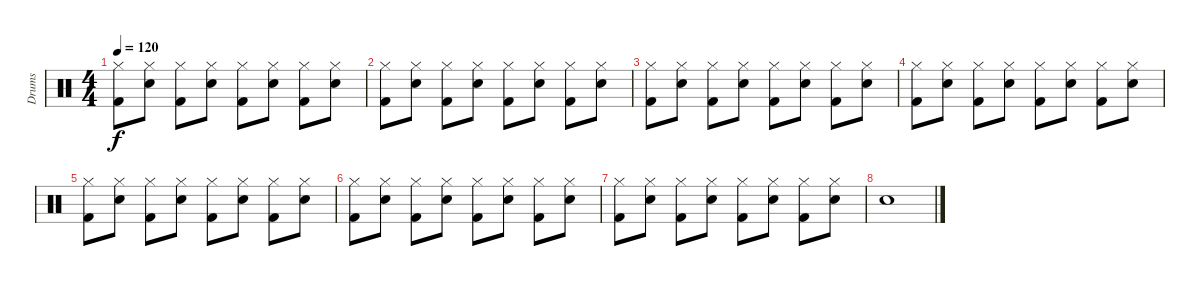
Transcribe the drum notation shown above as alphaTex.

\track ("Drums" "Drums") {instrument percussion}
\staff {score}
\articulation defaults
\ts (4 4)
\tempo 120
\clef neutral
\ks c
("Hi-Hat (closed)" "Kick (hit) 2").8{dy f} ("Hi-Hat (closed)" "Snare (hit) 2").8 ("Hi-Hat (closed)" "Kick (hit) 2").8 ("Hi-Hat (closed)" "Snare (hit) 2").8 ("Hi-Hat (closed)" "Kick (hit) 2").8 ("Hi-Hat (closed)" "Snare (hit) 2").8 ("Hi-Hat (closed)" "Kick (hit) 2").8 ("Hi-Hat (closed)" "Snare (hit) 2").8 |
("Hi-Hat (closed)" "Kick (hit) 2").8 ("Hi-Hat (closed)" "Snare (hit) 2").8 ("Hi-Hat (closed)" "Kick (hit) 2").8 ("Hi-Hat (closed)" "Snare (hit) 2").8 ("Hi-Hat (closed)" "Kick (hit) 2").8 ("Hi-Hat (closed)" "Snare (hit) 2").8 ("Hi-Hat (closed)" "Kick (hit) 2").8 ("Hi-Hat (closed)" "Snare (hit) 2").8 |
("Hi-Hat (closed)" "Kick (hit) 2").8 ("Hi-Hat (closed)" "Snare (hit) 2").8 ("Hi-Hat (closed)" "Kick (hit) 2").8 ("Hi-Hat (closed)" "Snare (hit) 2").8 ("Hi-Hat (closed)" "Kick (hit) 2").8 ("Hi-Hat (closed)" "Snare (hit) 2").8 ("Hi-Hat (closed)" "Kick (hit) 2").8 ("Hi-Hat (closed)" "Snare (hit) 2").8 |
("Hi-Hat (closed)" "Kick (hit) 2").8 ("Hi-Hat (closed)" "Snare (hit) 2").8 ("Hi-Hat (closed)" "Kick (hit) 2").8 ("Hi-Hat (closed)" "Snare (hit) 2").8 ("Hi-Hat (closed)" "Kick (hit) 2").8 ("Hi-Hat (closed)" "Snare (hit) 2").8 ("Hi-Hat (closed)" "Kick (hit) 2").8 ("Hi-Hat (closed)" "Snare (hit) 2").8 |
("Hi-Hat (closed)" "Kick (hit) 2").8 ("Hi-Hat (closed)" "Snare (hit) 2").8 ("Hi-Hat (closed)" "Kick (hit) 2").8 ("Hi-Hat (closed)" "Snare (hit) 2").8 ("Hi-Hat (closed)" "Kick (hit) 2").8 ("Hi-Hat (closed)" "Snare (hit) 2").8 ("Hi-Hat (closed)" "Kick (hit) 2").8 ("Hi-Hat (closed)" "Snare (hit) 2").8 |
("Hi-Hat (closed)" "Kick (hit) 2").8 ("Hi-Hat (closed)" "Snare (hit) 2").8 ("Hi-Hat (closed)" "Kick (hit) 2").8 ("Hi-Hat (closed)" "Snare (hit) 2").8 ("Hi-Hat (closed)" "Kick (hit) 2").8 ("Hi-Hat (closed)" "Snare (hit) 2").8 ("Hi-Hat (closed)" "Kick (hit) 2").8 ("Hi-Hat (closed)" "Snare (hit) 2").8 |
("Hi-Hat (closed)" "Kick (hit) 2").8 ("Hi-Hat (closed)" "Snare (hit) 2").8 ("Hi-Hat (closed)" "Kick (hit) 2").8 ("Hi-Hat (closed)" "Snare (hit) 2").8 ("Hi-Hat (closed)" "Kick (hit) 2").8 ("Hi-Hat (closed)" "Snare (hit) 2").8 ("Hi-Hat (closed)" "Kick (hit) 2").8 ("Hi-Hat (closed)" "Snare (hit) 2").8 |
"Snare (hit) 2".1
